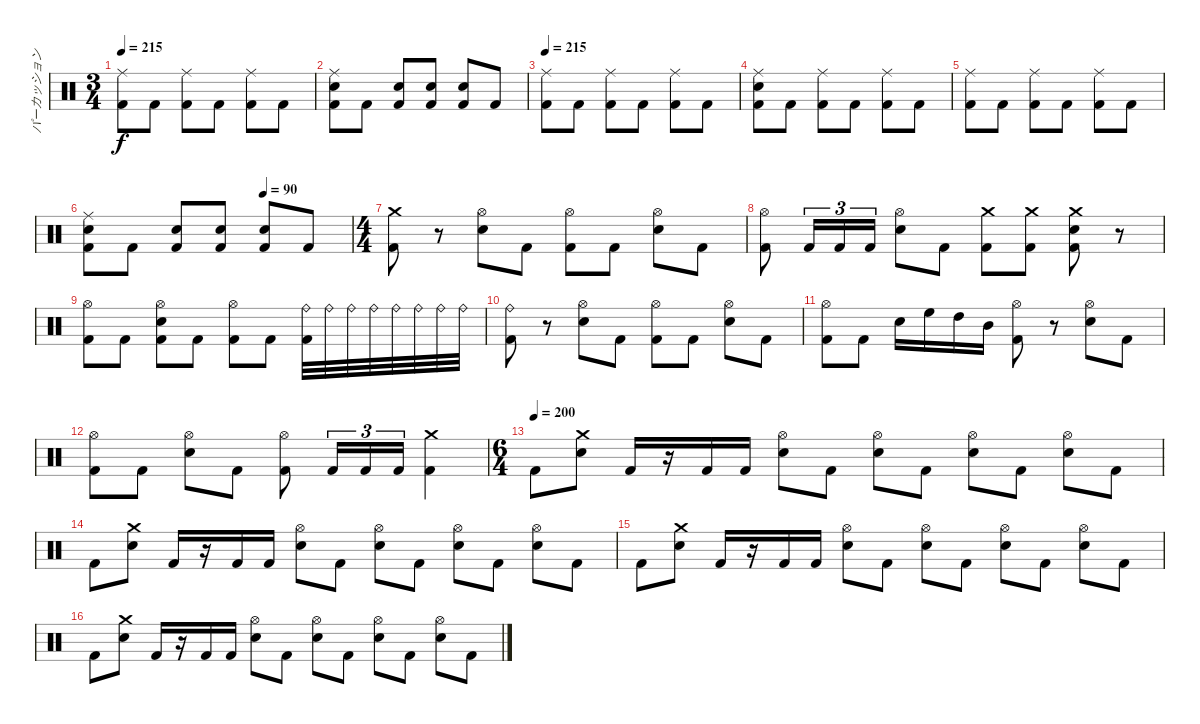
\track ("パーカッション" "パーカッション") {instrument percussion}
\staff {score}
\articulation defaults
\ts (3 4)
\tempo 215
\clef neutral
\ks c
("Ride (middle)" "Kick (hit) 2").8{dy f} "Kick (hit) 2".8 ("Ride (middle)" "Kick (hit) 2").8 "Kick (hit) 2".8 ("Ride (middle)" "Kick (hit) 2").8 "Kick (hit) 2".8 |
("Snare (hit) 2" "Ride (middle)" "Kick (hit) 2").8 "Kick (hit) 2".8 ("Snare (hit) 2" "Kick (hit) 2").8 ("Snare (hit) 2" "Kick (hit) 2").8 ("Snare (hit) 2" "Kick (hit) 2").8 "Kick (hit) 2".8 |
\tempo 215
("Ride (middle)" "Kick (hit) 2").8 "Kick (hit) 2".8 ("Ride (middle)" "Kick (hit) 2").8 "Kick (hit) 2".8 ("Ride (middle)" "Kick (hit) 2").8 "Kick (hit) 2".8 |
("Snare (hit) 2" "Ride (middle)" "Kick (hit) 2").8 "Kick (hit) 2".8 ("Ride (middle)" "Kick (hit) 2").8 "Kick (hit) 2".8 ("Ride (middle)" "Kick (hit) 2").8 "Kick (hit) 2".8 |
("Ride (middle)" "Kick (hit) 2").8 "Kick (hit) 2".8 ("Ride (middle)" "Kick (hit) 2").8 "Kick (hit) 2".8 ("Ride (middle)" "Kick (hit) 2").8 "Kick (hit) 2".8 |
\tempo (90 0.6666666666666666)
("Snare (hit) 2" "Ride (middle)" "Kick (hit) 2").8 "Kick (hit) 2".8 ("Snare (hit) 2" "Kick (hit) 2").8 ("Snare (hit) 2" "Kick (hit) 2").8 ("Snare (hit) 2" "Kick (hit) 2").8 "Kick (hit) 2".8 |
\ts (4 4)
("Crash medium (hit)" "Kick (hit) 2").8 r.8 ("Hi-Hat (open)" "Snare (hit) 2").8 "Kick (hit) 2".8 ("Hi-Hat (open)" "Kick (hit) 2").8 "Kick (hit) 2".8 ("Hi-Hat (open)" "Snare (hit) 2").8 "Kick (hit) 2".8 |
("Hi-Hat (open)" "Kick (hit) 2").8 "Kick (hit) 2".16{tu (3 2)} "Kick (hit) 2".16{tu (3 2)} "Kick (hit) 2".16{tu (3 2)} ("Hi-Hat (open)" "Snare (hit) 2").8 "Kick (hit) 2".8 ("Crash medium (hit)" "Kick (hit) 2").8 ("Crash medium (hit)" "Kick (hit) 2").8 ("Crash medium (hit)" "Snare (hit) 2" "Kick (hit) 2").8 r.8 |
("Hi-Hat (open)" "Kick (hit) 2").8 "Kick (hit) 2".8 ("Hi-Hat (open)" "Snare (hit) 2" "Kick (hit) 2").8 "Kick (hit) 2".8 ("Hi-Hat (open)" "Kick (hit) 2").8 "Kick (hit) 2".8 ("Ride (bell)" "Kick (hit) 2").32 "Ride (bell)".32 "Ride (bell)".32 "Ride (bell)".32 "Ride (bell)".32 "Ride (bell)".32 "Ride (bell)".32 "Ride (bell)".32 |
("Ride (bell)" "Kick (hit) 2").8 r.8 ("Hi-Hat (open)" "Snare (hit) 2").8 "Kick (hit) 2".8 ("Hi-Hat (open)" "Kick (hit) 2").8 "Kick (hit) 2".8 ("Hi-Hat (open)" "Snare (hit) 2").8 "Kick (hit) 2".8 |
("Hi-Hat (open)" "Kick (hit) 2").8 "Kick (hit) 2".8 "Snare (hit) 2".16 "High Floor Tom (hit)".16 "High Tom (hit)".16 "Mid Tom (hit)".16 ("Hi-Hat (open)" "Kick (hit) 2").8 r.8 ("Hi-Hat (open)" "Snare (hit) 2").8 "Kick (hit) 2".8 |
("Hi-Hat (open)" "Kick (hit) 2").8 "Kick (hit) 2".8 ("Hi-Hat (open)" "Snare (hit) 2").8 "Kick (hit) 2".8 ("Hi-Hat (open)" "Kick (hit) 2").8 "Kick (hit) 2".16{tu (3 2)} "Kick (hit) 2".16{tu (3 2)} "Kick (hit) 2".16{tu (3 2)} ("Crash medium (hit)" "Kick (hit) 2").4 |
\ts (6 4)
\tempo (200)
"Kick (hit) 2".8 ("Crash medium (hit)" "Snare (hit) 2").8 "Kick (hit) 2".16 r.16 "Kick (hit) 2".16 "Kick (hit) 2".16 ("Hi-Hat (open)" "Snare (hit) 2").8 "Kick (hit) 2".8 ("Hi-Hat (open)" "Snare (hit) 2").8 "Kick (hit) 2".8 ("Hi-Hat (open)" "Snare (hit) 2").8 "Kick (hit) 2".8 ("Hi-Hat (open)" "Snare (hit) 2").8 "Kick (hit) 2".8 |
"Kick (hit) 2".8 ("Crash medium (hit)" "Snare (hit) 2").8 "Kick (hit) 2".16 r.16 "Kick (hit) 2".16 "Kick (hit) 2".16 ("Hi-Hat (open)" "Snare (hit) 2").8 "Kick (hit) 2".8 ("Hi-Hat (open)" "Snare (hit) 2").8 "Kick (hit) 2".8 ("Hi-Hat (open)" "Snare (hit) 2").8 "Kick (hit) 2".8 ("Hi-Hat (open)" "Snare (hit) 2").8 "Kick (hit) 2".8 |
"Kick (hit) 2".8 ("Crash medium (hit)" "Snare (hit) 2").8 "Kick (hit) 2".16 r.16 "Kick (hit) 2".16 "Kick (hit) 2".16 ("Hi-Hat (open)" "Snare (hit) 2").8 "Kick (hit) 2".8 ("Hi-Hat (open)" "Snare (hit) 2").8 "Kick (hit) 2".8 ("Hi-Hat (open)" "Snare (hit) 2").8 "Kick (hit) 2".8 ("Hi-Hat (open)" "Snare (hit) 2").8 "Kick (hit) 2".8 |
"Kick (hit) 2".8 ("Crash medium (hit)" "Snare (hit) 2").8 "Kick (hit) 2".16 r.16 "Kick (hit) 2".16 "Kick (hit) 2".16 ("Hi-Hat (open)" "Snare (hit) 2").8 "Kick (hit) 2".8 ("Hi-Hat (open)" "Snare (hit) 2").8 "Kick (hit) 2".8 ("Hi-Hat (open)" "Snare (hit) 2").8 "Kick (hit) 2".8 ("Hi-Hat (open)" "Snare (hit) 2").8 "Kick (hit) 2".8
